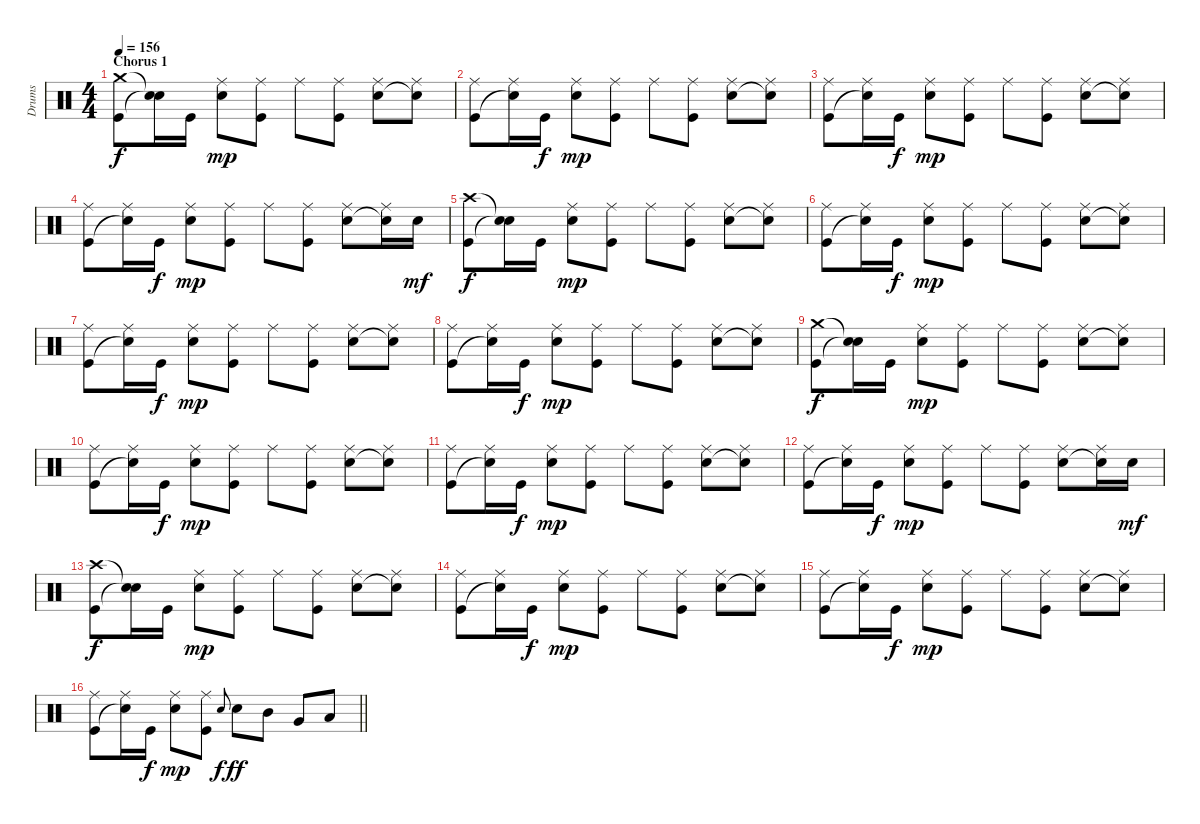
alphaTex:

\track ("Drums" "Drums") {instrument percussion}
\staff {score}
\articulation defaults
\ts (4 4)
\section ("" "Chorus 1")
\tempo 156
\clef neutral
\ks c
("Crash medium (hit)" "Kick (hit)").8{dy f} ("Snare (hit)"{t} "Snare (hit)"{t}).16 "Kick (hit)".16 ("Ride (middle)" "Snare (hit) 2").8{dy mp} ("Ride (middle)" "Kick (hit)").8 "Ride (middle)".8 ("Ride (middle)" "Kick (hit)").8 ("Ride (middle)" "Snare (hit) 2").8 ("Ride (middle)" "Snare (hit)"{t}).8 |
("Ride (middle)" "Kick (hit)").8 ("Ride (middle)" "Snare (hit)"{t}).16 "Kick (hit)".16{dy f} ("Ride (middle)" "Snare (hit) 2").8{dy mp} ("Ride (middle)" "Kick (hit)").8 "Ride (middle)".8 ("Ride (middle)" "Kick (hit)").8 ("Ride (middle)" "Snare (hit) 2").8 ("Ride (middle)" "Snare (hit)"{t}).8 |
("Ride (middle)" "Kick (hit)").8 ("Ride (middle)" "Snare (hit)"{t}).16 "Kick (hit)".16{dy f} ("Ride (middle)" "Snare (hit) 2").8{dy mp} ("Ride (middle)" "Kick (hit)").8 "Ride (middle)".8 ("Ride (middle)" "Kick (hit)").8 ("Ride (middle)" "Snare (hit) 2").8 ("Ride (middle)" "Snare (hit)"{t}).8 |
("Ride (middle)" "Kick (hit)").8 ("Ride (middle)" "Snare (hit)"{t}).16 "Kick (hit)".16{dy f} ("Ride (middle)" "Snare (hit) 2").8{dy mp} ("Ride (middle)" "Kick (hit)").8 "Ride (middle)".8 ("Ride (middle)" "Kick (hit)").8 ("Ride (middle)" "Snare (hit) 2").8 ("Ride (middle)" "Snare (hit)"{t}).16 "Snare (hit) 2".16{dy mf} |
("Crash high (hit)" "Kick (hit)").8{dy f} ("Snare (hit)"{t} "Snare (hit)"{t}).16 "Kick (hit)".16 ("Ride (middle)" "Snare (hit) 2").8{dy mp} ("Ride (middle)" "Kick (hit)").8 "Ride (middle)".8 ("Ride (middle)" "Kick (hit)").8 ("Ride (middle)" "Snare (hit) 2").8 ("Ride (middle)" "Snare (hit)"{t}).8 |
("Ride (middle)" "Kick (hit)").8 ("Ride (middle)" "Snare (hit)"{t}).16 "Kick (hit)".16{dy f} ("Ride (middle)" "Snare (hit) 2").8{dy mp} ("Ride (middle)" "Kick (hit)").8 "Ride (middle)".8 ("Ride (middle)" "Kick (hit)").8 ("Ride (middle)" "Snare (hit) 2").8 ("Ride (middle)" "Snare (hit)"{t}).8 |
("Ride (middle)" "Kick (hit)").8 ("Ride (middle)" "Snare (hit)"{t}).16 "Kick (hit)".16{dy f} ("Ride (middle)" "Snare (hit) 2").8{dy mp} ("Ride (middle)" "Kick (hit)").8 "Ride (middle)".8 ("Ride (middle)" "Kick (hit)").8 ("Ride (middle)" "Snare (hit) 2").8 ("Ride (middle)" "Snare (hit)"{t}).8 |
("Ride (middle)" "Kick (hit)").8 ("Ride (middle)" "Snare (hit)"{t}).16 "Kick (hit)".16{dy f} ("Ride (middle)" "Snare (hit) 2").8{dy mp} ("Ride (middle)" "Kick (hit)").8 "Ride (middle)".8 ("Ride (middle)" "Kick (hit)").8 ("Ride (middle)" "Snare (hit) 2").8 ("Ride (middle)" "Snare (hit)"{t}).8 |
("Crash medium (hit)" "Kick (hit)").8{dy f} ("Snare (hit)"{t} "Snare (hit)"{t}).16 "Kick (hit)".16 ("Ride (middle)" "Snare (hit) 2").8{dy mp} ("Ride (middle)" "Kick (hit)").8 "Ride (middle)".8 ("Ride (middle)" "Kick (hit)").8 ("Ride (middle)" "Snare (hit) 2").8 ("Ride (middle)" "Snare (hit)"{t}).8 |
("Ride (middle)" "Kick (hit)").8 ("Ride (middle)" "Snare (hit)"{t}).16 "Kick (hit)".16{dy f} ("Ride (middle)" "Snare (hit) 2").8{dy mp} ("Ride (middle)" "Kick (hit)").8 "Ride (middle)".8 ("Ride (middle)" "Kick (hit)").8 ("Ride (middle)" "Snare (hit) 2").8 ("Ride (middle)" "Snare (hit)"{t}).8 |
("Ride (middle)" "Kick (hit)").8 ("Ride (middle)" "Snare (hit)"{t}).16 "Kick (hit)".16{dy f} ("Ride (middle)" "Snare (hit) 2").8{dy mp} ("Ride (middle)" "Kick (hit)").8 "Ride (middle)".8 ("Ride (middle)" "Kick (hit)").8 ("Ride (middle)" "Snare (hit) 2").8 ("Ride (middle)" "Snare (hit)"{t}).8 |
("Ride (middle)" "Kick (hit)").8 ("Ride (middle)" "Snare (hit)"{t}).16 "Kick (hit)".16{dy f} ("Ride (middle)" "Snare (hit) 2").8{dy mp} ("Ride (middle)" "Kick (hit)").8 "Ride (middle)".8 ("Ride (middle)" "Kick (hit)").8 ("Ride (middle)" "Snare (hit) 2").8 ("Ride (middle)" "Snare (hit)"{t}).16 "Snare (hit) 2".16{dy mf} |
("Crash high (hit)" "Kick (hit)").8{dy f} ("Snare (hit)"{t} "Snare (hit)"{t}).16 "Kick (hit)".16 ("Ride (middle)" "Snare (hit) 2").8{dy mp} ("Ride (middle)" "Kick (hit)").8 "Ride (middle)".8 ("Ride (middle)" "Kick (hit)").8 ("Ride (middle)" "Snare (hit) 2").8 ("Ride (middle)" "Snare (hit)"{t}).8 |
("Ride (middle)" "Kick (hit)").8 ("Ride (middle)" "Snare (hit)"{t}).16 "Kick (hit)".16{dy f} ("Ride (middle)" "Snare (hit) 2").8{dy mp} ("Ride (middle)" "Kick (hit)").8 "Ride (middle)".8 ("Ride (middle)" "Kick (hit)").8 ("Ride (middle)" "Snare (hit) 2").8 ("Ride (middle)" "Snare (hit)"{t}).8 |
("Ride (middle)" "Kick (hit)").8 ("Ride (middle)" "Snare (hit)"{t}).16 "Kick (hit)".16{dy f} ("Ride (middle)" "Snare (hit) 2").8{dy mp} ("Ride (middle)" "Kick (hit)").8 "Ride (middle)".8 ("Ride (middle)" "Kick (hit)").8 ("Ride (middle)" "Snare (hit) 2").8 ("Ride (middle)" "Snare (hit)"{t}).8 |
\barLineRight lightlight
("Ride (middle)" "Kick (hit)").8 ("Ride (middle)" "Snare (hit)"{t}).16 "Kick (hit)".16{dy f} ("Ride (middle)" "Snare (hit) 2").8{dy mp} ("Ride (middle)" "Kick (hit)").8 "Snare (hit) 2".8{gr onbeat dy f} "Snare (hit) 2".8{dy ff} "Mid Tom (hit)".8 "Very Low Tom (hit)".8 "Low Floor Tom (hit)".8
